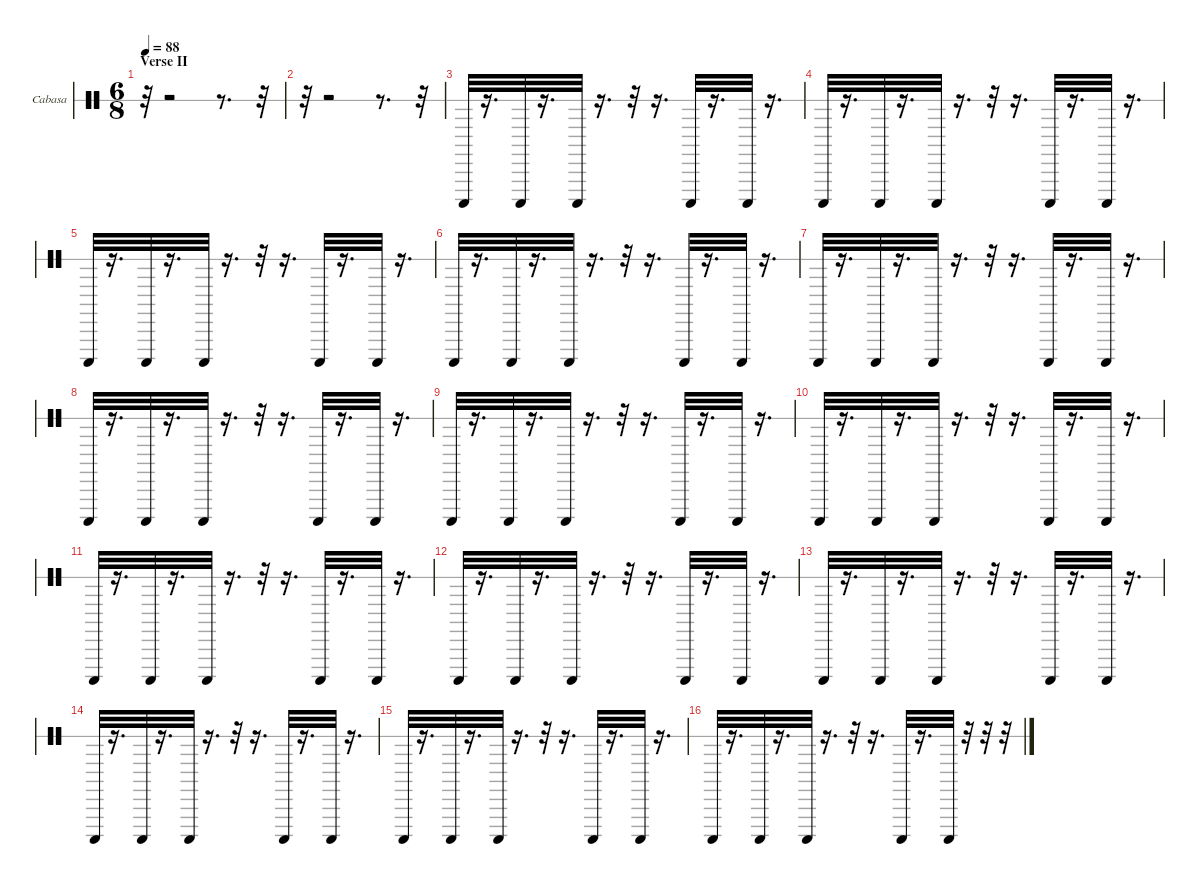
\hideDynamics
\bracketExtendMode nobrackets
\firstSystemTrackNameOrientation horizontal
\otherSystemsTrackNameOrientation horizontal
\track ("Cabasa" "Cabasa") {instrument percussion}
\staff {score 1}
\articulation defaults
\ts (6 8)
\section ("" "Verse II")
\tempo 88
\clef neutral
\ks c
r.32{dy f} r.2 r.8{d} r.32 |
r.32 r.2 r.8{d} r.32 |
"Cabasa (hit)".32{dy fff} r.16{d} "Cabasa (hit)".32{dy mf} r.16{d} "Cabasa (hit)".32{dy mp} r.16{d} r.32 r.16{d} "Cabasa (hit)".32{dy mf} r.16{d} "Cabasa (hit)".32{dy mp} r.16{d} |
"Cabasa (hit)".32{dy fff} r.16{d} "Cabasa (hit)".32{dy mf} r.16{d} "Cabasa (hit)".32{dy mp} r.16{d} r.32 r.16{d} "Cabasa (hit)".32{dy mf} r.16{d} "Cabasa (hit)".32{dy mp} r.16{d} |
"Cabasa (hit)".32{dy fff} r.16{d} "Cabasa (hit)".32{dy mf} r.16{d} "Cabasa (hit)".32{dy mp} r.16{d} r.32 r.16{d} "Cabasa (hit)".32{dy mf} r.16{d} "Cabasa (hit)".32{dy mp} r.16{d} |
"Cabasa (hit)".32{dy fff} r.16{d} "Cabasa (hit)".32{dy mf} r.16{d} "Cabasa (hit)".32{dy mp} r.16{d} r.32 r.16{d} "Cabasa (hit)".32{dy mf} r.16{d} "Cabasa (hit)".32{dy f} r.16{d} |
"Cabasa (hit)".32{dy fff} r.16{d} "Cabasa (hit)".32{dy mf} r.16{d} "Cabasa (hit)".32{dy mp} r.16{d} r.32 r.16{d} "Cabasa (hit)".32{dy mf} r.16{d} "Cabasa (hit)".32{dy mp} r.16{d} |
"Cabasa (hit)".32{dy fff} r.16{d} "Cabasa (hit)".32{dy mf} r.16{d} "Cabasa (hit)".32{dy mp} r.16{d} r.32 r.16{d} "Cabasa (hit)".32{dy mf} r.16{d} "Cabasa (hit)".32{dy f} r.16{d} |
"Cabasa (hit)".32{dy fff} r.16{d} "Cabasa (hit)".32{dy mf} r.16{d} "Cabasa (hit)".32{dy mp} r.16{d} r.32 r.16{d} "Cabasa (hit)".32{dy mf} r.16{d} "Cabasa (hit)".32{dy mp} r.16{d} |
"Cabasa (hit)".32{dy fff} r.16{d} "Cabasa (hit)".32{dy mf} r.16{d} "Cabasa (hit)".32{dy mp} r.16{d} r.32 r.16{d} "Cabasa (hit)".32{dy mf} r.16{d} "Cabasa (hit)".32{dy mp} r.16{d} |
"Cabasa (hit)".32{dy fff} r.16{d} "Cabasa (hit)".32{dy mf} r.16{d} "Cabasa (hit)".32{dy mp} r.16{d} r.32 r.16{d} "Cabasa (hit)".32{dy mf} r.16{d} "Cabasa (hit)".32{dy mp} r.16{d} |
"Cabasa (hit)".32{dy fff} r.16{d} "Cabasa (hit)".32{dy mf} r.16{d} "Cabasa (hit)".32{dy mp} r.16{d} r.32 r.16{d} "Cabasa (hit)".32{dy mf} r.16{d} "Cabasa (hit)".32{dy mp} r.16{d} |
"Cabasa (hit)".32{dy fff} r.16{d} "Cabasa (hit)".32{dy mf} r.16{d} "Cabasa (hit)".32{dy mp} r.16{d} r.32 r.16{d} "Cabasa (hit)".32{dy mf} r.16{d} "Cabasa (hit)".32{dy f} r.16{d} |
"Cabasa (hit)".32{dy fff} r.16{d} "Cabasa (hit)".32{dy mf} r.16{d} "Cabasa (hit)".32{dy mp} r.16{d} r.32 r.16{d} "Cabasa (hit)".32{dy mf} r.16{d} "Cabasa (hit)".32{dy mp} r.16{d} |
"Cabasa (hit)".32{dy fff} r.16{d} "Cabasa (hit)".32{dy mf} r.16{d} "Cabasa (hit)".32{dy mp} r.16{d} r.32 r.16{d} "Cabasa (hit)".32{dy mf} r.16{d} "Cabasa (hit)".32{dy mp} r.16{d} |
"Cabasa (hit)".32{dy fff} r.16{d} "Cabasa (hit)".32{dy mf} r.16{d} "Cabasa (hit)".32{dy mp} r.16{d} r.32 r.16{d} "Cabasa (hit)".32{dy mf} r.16{d} "Cabasa (hit)".32{dy f} r.32 r.32 r.32
